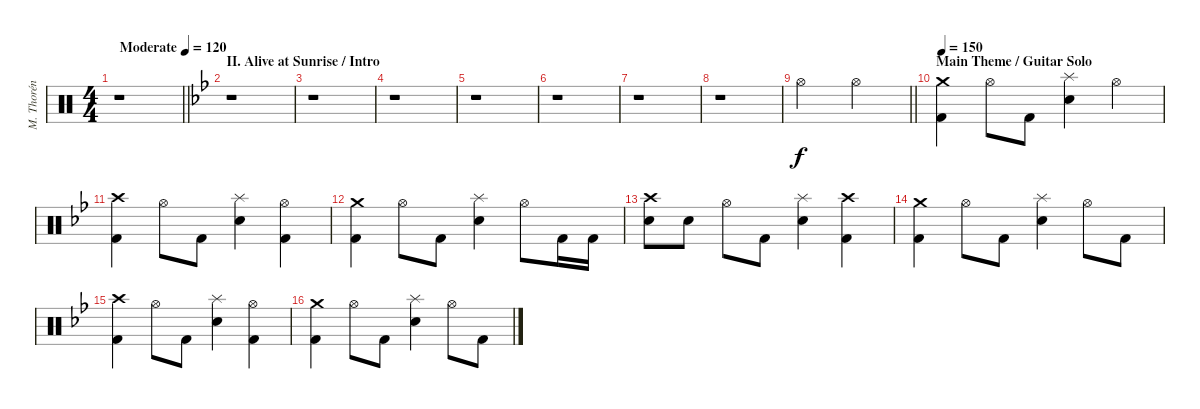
\track ("M. Thorén (Drums)" "M. Thorén ") {instrument percussion}
\staff {score}
\articulation defaults
\ts (4 4)
\tempo (120 "Moderate")
\clef neutral
\barLineRight lightlight
\ks c
r.1{dy f} |
\section ("" "II. Alive at Sunrise / Intro")
\ks gminor
r.1 |
r.1 |
r.1 |
r.1 |
r.1 |
r.1 |
r.1 |
\barLineRight lightlight "Hi-Hat (open)".2 "Hi-Hat (open)".2
|
\section ("" "Main Theme / Guitar Solo")
\tempo 150
("Crash medium (hit)" "Kick (hit) 2").4 "Hi-Hat (open)".8 "Kick (hit) 2".8 ("Splash (hit)" "Electric Snare (hit)").4 "Hi-Hat (open)".4 |
("Crash high (hit)" "Kick (hit) 2").4 "Hi-Hat (open)".8 "Kick (hit) 2".8 ("Splash (hit)" "Electric Snare (hit)").4 ("Hi-Hat (open)" "Kick (hit) 2").4 |
("Crash medium (hit)" "Kick (hit) 2").4 "Hi-Hat (open)".8 "Kick (hit) 2".8 ("Splash (hit)" "Electric Snare (hit)").4 "Hi-Hat (open)".8 "Kick (hit) 2".16 "Kick (hit) 2".16 |
("Crash high (hit)" "Electric Snare (hit)").8 "Electric Snare (hit)".8 "Hi-Hat (open)".8 "Kick (hit) 2".8 ("Splash (hit)" "Electric Snare (hit)").4 ("Crash high (hit)" "Kick (hit) 2").4 |
("Crash medium (hit)" "Kick (hit) 2").4 "Hi-Hat (open)".8 "Kick (hit) 2".8 ("Splash (hit)" "Electric Snare (hit)").4 "Hi-Hat (open)".8 "Kick (hit) 2".8 |
("Crash high (hit)" "Kick (hit) 2").4 "Hi-Hat (open)".8 "Kick (hit) 2".8 ("Splash (hit)" "Electric Snare (hit)").4 ("Hi-Hat (open)" "Kick (hit) 2").4 |
("Crash medium (hit)" "Kick (hit) 2").4 "Hi-Hat (open)".8 "Kick (hit) 2".8 ("Splash (hit)" "Electric Snare (hit)").4 "Hi-Hat (open)".8 "Kick (hit) 2".8
